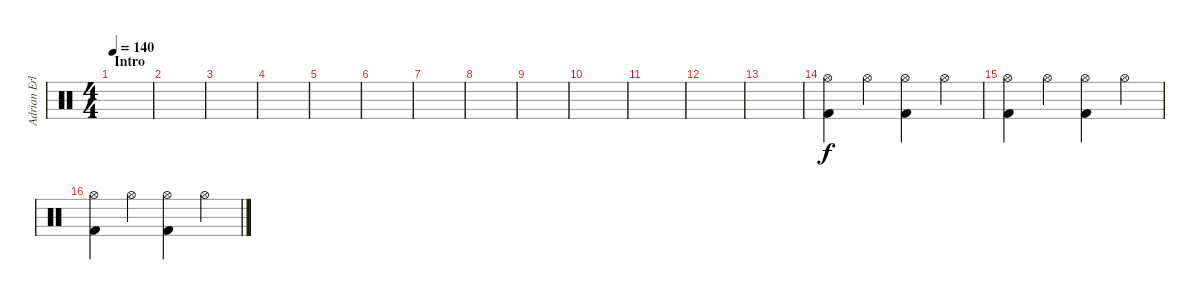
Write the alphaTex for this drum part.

\track ("Adrian Erlandsson" "Adrian Erl") {instrument percussion}
\staff {score}
\articulation defaults
\ts (4 4)
\section ("" "Intro")
\tempo 140
\clef neutral
\ks c
|
|
|
|
|
|
|
|
|
|
|
|
|
("Hi-Hat (open)" "Kick (hit) 2").4 "Hi-Hat (open)".4 ("Hi-Hat (open)" "Kick (hit) 2").4 "Hi-Hat (open)".4 |
("Hi-Hat (open)" "Kick (hit) 2").4 "Hi-Hat (open)".4 ("Hi-Hat (open)" "Kick (hit) 2").4 "Hi-Hat (open)".4 |
("Hi-Hat (open)" "Kick (hit) 2").4 "Hi-Hat (open)".4 ("Hi-Hat (open)" "Kick (hit) 2").4 "Hi-Hat (open)".4
